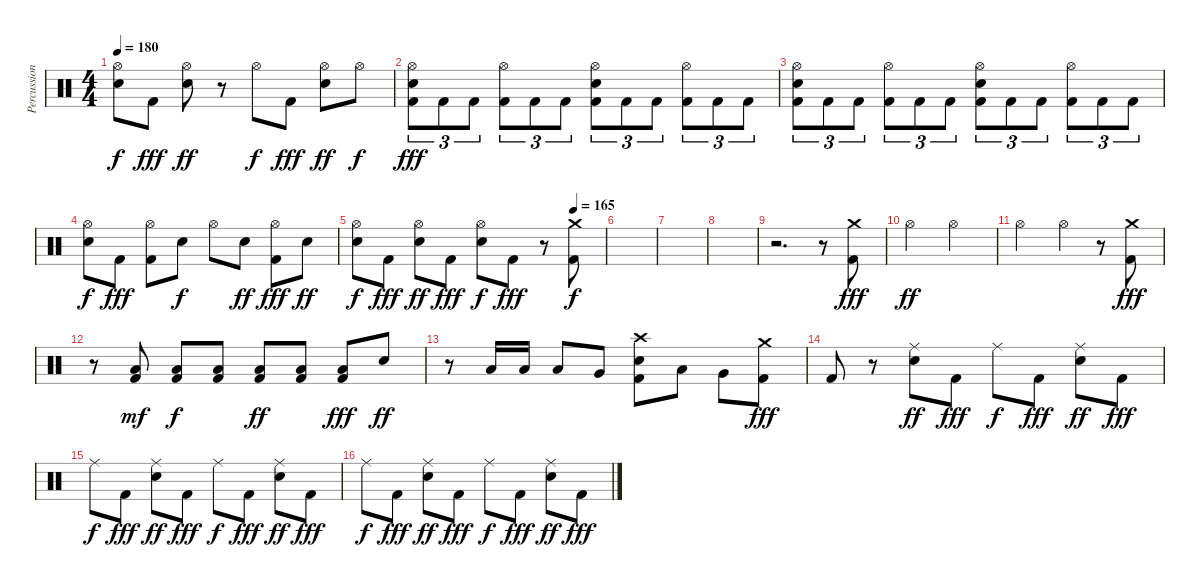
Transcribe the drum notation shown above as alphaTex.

\track ("Percussion" "Percussion") {instrument percussion}
\staff {score}
\articulation defaults
\ts (4 4)
\tempo 180
\clef neutral
\ks c
("Hi-Hat (open)" "Snare (hit)").8{dy f} "Kick (hit) 2".8{dy fff} ("Hi-Hat (open)" "Electric Snare (hit)").8{dy ff} r.8 "Hi-Hat (open)".8{dy f} "Kick (hit) 2".8{dy fff} ("Hi-Hat (open)" "Electric Snare (hit)").8{dy ff} "Hi-Hat (open)".8{dy f} |
("Hi-Hat (open)" "Electric Snare (hit)" "Kick (hit) 2").8{tu (3 2) dy fff} "Kick (hit) 2".8{tu (3 2)} "Kick (hit) 2".8{tu (3 2)} ("Hi-Hat (open)" "Kick (hit) 2").8{tu (3 2)} "Kick (hit) 2".8{tu (3 2)} "Kick (hit) 2".8{tu (3 2)} ("Hi-Hat (open)" "Electric Snare (hit)" "Kick (hit) 2").8{tu (3 2)} "Kick (hit) 2".8{tu (3 2)} "Kick (hit) 2".8{tu (3 2)} ("Hi-Hat (open)" "Kick (hit) 2").8{tu (3 2)} "Kick (hit) 2".8{tu (3 2)} "Kick (hit) 2".8{tu (3 2)} |
("Hi-Hat (open)" "Electric Snare (hit)" "Kick (hit) 2").8{tu (3 2)} "Kick (hit) 2".8{tu (3 2)} "Kick (hit) 2".8{tu (3 2)} ("Hi-Hat (open)" "Kick (hit) 2").8{tu (3 2)} "Kick (hit) 2".8{tu (3 2)} "Kick (hit) 2".8{tu (3 2)} ("Hi-Hat (open)" "Electric Snare (hit)" "Kick (hit) 2").8{tu (3 2)} "Kick (hit) 2".8{tu (3 2)} "Kick (hit) 2".8{tu (3 2)} ("Hi-Hat (open)" "Kick (hit) 2").8{tu (3 2)} "Kick (hit) 2".8{tu (3 2)} "Kick (hit) 2".8{tu (3 2)} |
("Hi-Hat (open)" "Electric Snare (hit)").8{dy f} "Kick (hit) 2".8{dy fff} ("Hi-Hat (open)" "Kick (hit) 2").8 "Electric Snare (hit)".8{dy f} "Hi-Hat (open)".8 "Electric Snare (hit)".8{dy ff} ("Hi-Hat (open)" "Kick (hit) 2").8{dy fff} "Electric Snare (hit)".8{dy ff} |
\tempo (165 0.875)
("Hi-Hat (open)" "Snare (hit)").8{dy f} "Kick (hit) 2".8{dy fff} ("Hi-Hat (open)" "Electric Snare (hit)").8{dy ff} "Kick (hit) 2".8{dy fff} ("Hi-Hat (open)" "Electric Snare (hit)").8{dy f} "Kick (hit) 2".8{dy fff} r.8 ("Crash medium (hit)" "Kick (hit) 2").8{dy f} |
|
|
|
r.2{d} r.8 ("Crash medium (hit)" "Kick (hit) 2").8{dy fff} |
"Hi-Hat (open)".2{dy ff} "Hi-Hat (open)".2 |
"Hi-Hat (open)".2 "Hi-Hat (open)".4 r.8 ("Crash medium (hit)" "Kick (hit) 2").8{dy fff} |
r.8 ("Low Floor Tom (hit)" "Kick (hit) 2").8{dy mf} ("Low Floor Tom (hit)" "Kick (hit) 2").8{dy f} ("Low Floor Tom (hit)" "Kick (hit) 2").8 ("Low Floor Tom (hit)" "Kick (hit) 2").8{dy ff} ("Low Floor Tom (hit)" "Kick (hit) 2").8 ("Low Floor Tom (hit)" "Kick (hit) 2").8{dy fff} "Electric Snare (hit)".8{dy ff} |
r.8 "Low Tom (hit)".16 "Low Tom (hit)".16 "Low Tom (hit)".8 "Very Low Tom (hit)".8 ("Crash high (hit)" "Electric Snare (hit)" "Kick (hit) 2").8 "Low Tom (hit)".8 "Very Low Tom (hit)".8 ("Crash medium (hit)" "Kick (hit) 2").8{dy fff} |
"Kick (hit) 2".8 r.8 ("Ride (middle)" "Electric Snare (hit)").8{dy ff} "Kick (hit) 2".8{dy fff} "Ride (middle)".8{dy f} "Kick (hit) 2".8{dy fff} ("Ride (middle)" "Electric Snare (hit)").8{dy ff} "Kick (hit) 2".8{dy fff} |
"Ride (middle)".8{dy f} "Kick (hit) 2".8{dy fff} ("Ride (middle)" "Electric Snare (hit)").8{dy ff} "Kick (hit) 2".8{dy fff} "Ride (middle)".8{dy f} "Kick (hit) 2".8{dy fff} ("Ride (middle)" "Electric Snare (hit)").8{dy ff} "Kick (hit) 2".8{dy fff} |
"Ride (middle)".8{dy f} "Kick (hit) 2".8{dy fff} ("Ride (middle)" "Electric Snare (hit)").8{dy ff} "Kick (hit) 2".8{dy fff} "Ride (middle)".8{dy f} "Kick (hit) 2".8{dy fff} ("Ride (middle)" "Electric Snare (hit)").8{dy ff} "Kick (hit) 2".8{dy fff}
